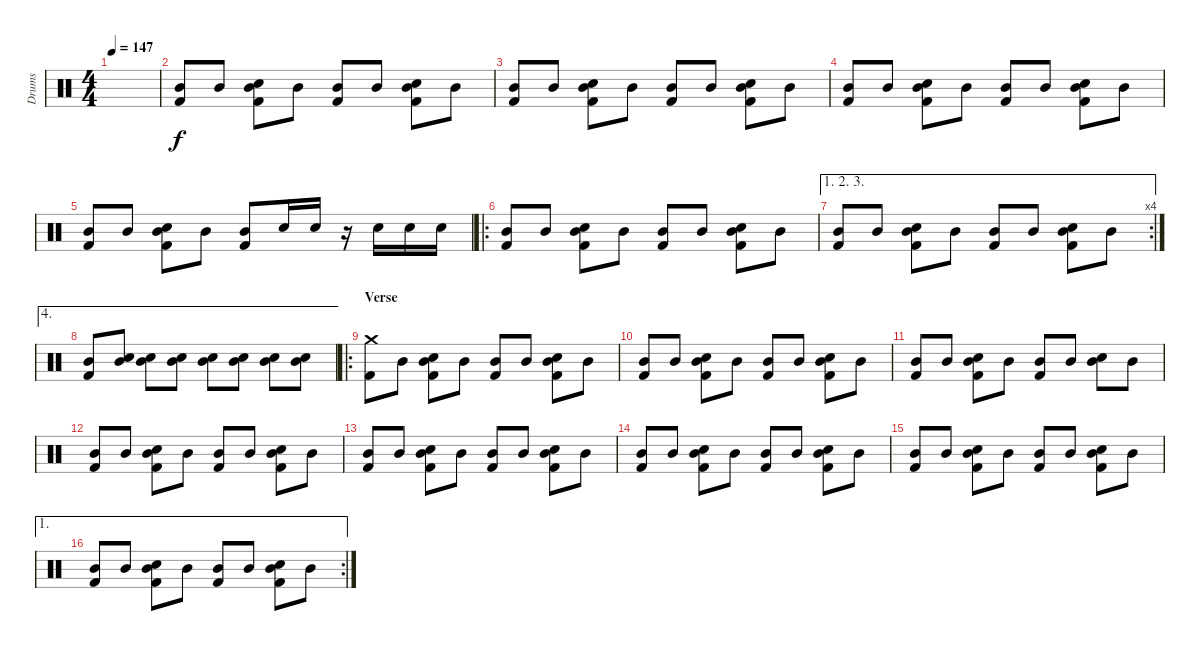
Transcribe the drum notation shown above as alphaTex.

\track ("Drums" "Drums") {instrument percussion}
\staff {score}
\articulation defaults
\ts (4 4)
\tempo 147
\clef neutral
\ks c
|
("Mid Tom (hit)" "Kick (hit) 2").8 "Mid Tom (hit)".8 ("Mid Tom (hit)" "Electric Snare (hit)" "Kick (hit) 2").8 "Mid Tom (hit)".8 ("Mid Tom (hit)" "Kick (hit) 2").8 "Mid Tom (hit)".8 ("Mid Tom (hit)" "Electric Snare (hit)" "Kick (hit) 2").8 "Mid Tom (hit)".8 |
("Mid Tom (hit)" "Kick (hit) 2").8 "Mid Tom (hit)".8 ("Mid Tom (hit)" "Electric Snare (hit)" "Kick (hit) 2").8 "Mid Tom (hit)".8 ("Mid Tom (hit)" "Kick (hit) 2").8 "Mid Tom (hit)".8 ("Mid Tom (hit)" "Electric Snare (hit)" "Kick (hit) 2").8 "Mid Tom (hit)".8 |
("Mid Tom (hit)" "Kick (hit) 2").8 "Mid Tom (hit)".8 ("Mid Tom (hit)" "Electric Snare (hit)" "Kick (hit) 2").8 "Mid Tom (hit)".8 ("Mid Tom (hit)" "Kick (hit) 2").8 "Mid Tom (hit)".8 ("Mid Tom (hit)" "Electric Snare (hit)" "Kick (hit) 2").8 "Mid Tom (hit)".8 |
("Mid Tom (hit)" "Kick (hit) 2").8 "Mid Tom (hit)".8 ("Mid Tom (hit)" "Electric Snare (hit)" "Kick (hit) 2").8 "Mid Tom (hit)".8 ("Mid Tom (hit)" "Kick (hit) 2").8 "Electric Snare (hit)".16 "Electric Snare (hit)".16 r.16 "Electric Snare (hit)".16 "Electric Snare (hit)".16 "Electric Snare (hit)".16 |
\ro
("Mid Tom (hit)" "Kick (hit) 2").8 "Mid Tom (hit)".8 ("Mid Tom (hit)" "Electric Snare (hit)" "Kick (hit) 2").8 "Mid Tom (hit)".8 ("Mid Tom (hit)" "Kick (hit) 2").8 "Mid Tom (hit)".8 ("Mid Tom (hit)" "Electric Snare (hit)" "Kick (hit) 2").8 "Mid Tom (hit)".8 |
\ae (1 2 3)
\rc 4
("Mid Tom (hit)" "Kick (hit) 2").8 "Mid Tom (hit)".8 ("Mid Tom (hit)" "Electric Snare (hit)" "Kick (hit) 2").8 "Mid Tom (hit)".8 ("Mid Tom (hit)" "Kick (hit) 2").8 "Mid Tom (hit)".8 ("Mid Tom (hit)" "Electric Snare (hit)" "Kick (hit) 2").8 "Mid Tom (hit)".8 |
\ae 4
("Mid Tom (hit)" "Kick (hit) 2").8 ("Mid Tom (hit)" "Electric Snare (hit)").8 ("Mid Tom (hit)" "Electric Snare (hit)").8 ("Mid Tom (hit)" "Electric Snare (hit)").8 ("Mid Tom (hit)" "Electric Snare (hit)").8 ("Mid Tom (hit)" "Electric Snare (hit)").8 ("Mid Tom (hit)" "Electric Snare (hit)").8 ("Mid Tom (hit)" "Electric Snare (hit)").8 |
\ro
\section ("" "Verse")
("Crash medium (hit)" "Kick (hit) 2").8 "Mid Tom (hit)".8 ("Mid Tom (hit)" "Electric Snare (hit)" "Kick (hit) 2").8 "Mid Tom (hit)".8 ("Mid Tom (hit)" "Kick (hit) 2").8 "Mid Tom (hit)".8 ("Mid Tom (hit)" "Electric Snare (hit)" "Kick (hit) 2").8 "Mid Tom (hit)".8 |
("Mid Tom (hit)" "Kick (hit) 2").8 "Mid Tom (hit)".8 ("Mid Tom (hit)" "Electric Snare (hit)" "Kick (hit) 2").8 "Mid Tom (hit)".8 ("Mid Tom (hit)" "Kick (hit) 2").8 "Mid Tom (hit)".8 ("Mid Tom (hit)" "Electric Snare (hit)" "Kick (hit) 2").8 "Mid Tom (hit)".8 |
("Mid Tom (hit)" "Kick (hit) 2").8 "Mid Tom (hit)".8 ("Mid Tom (hit)" "Electric Snare (hit)" "Kick (hit) 2").8 "Mid Tom (hit)".8 ("Mid Tom (hit)" "Kick (hit) 2").8 "Mid Tom (hit)".8 ("Mid Tom (hit)" "Electric Snare (hit)").8 "Mid Tom (hit)".8 |
("Mid Tom (hit)" "Kick (hit) 2").8 "Mid Tom (hit)".8 ("Mid Tom (hit)" "Electric Snare (hit)" "Kick (hit) 2").8 "Mid Tom (hit)".8 ("Mid Tom (hit)" "Kick (hit) 2").8 "Mid Tom (hit)".8 ("Mid Tom (hit)" "Electric Snare (hit)" "Kick (hit) 2").8 "Mid Tom (hit)".8 |
("Mid Tom (hit)" "Kick (hit) 2").8 "Mid Tom (hit)".8 ("Mid Tom (hit)" "Electric Snare (hit)" "Kick (hit) 2").8 "Mid Tom (hit)".8 ("Mid Tom (hit)" "Kick (hit) 2").8 "Mid Tom (hit)".8 ("Mid Tom (hit)" "Electric Snare (hit)" "Kick (hit) 2").8 "Mid Tom (hit)".8 |
("Mid Tom (hit)" "Kick (hit) 2").8 "Mid Tom (hit)".8 ("Mid Tom (hit)" "Electric Snare (hit)" "Kick (hit) 2").8 "Mid Tom (hit)".8 ("Mid Tom (hit)" "Kick (hit) 2").8 "Mid Tom (hit)".8 ("Mid Tom (hit)" "Electric Snare (hit)" "Kick (hit) 2").8 "Mid Tom (hit)".8 |
("Mid Tom (hit)" "Kick (hit) 2").8 "Mid Tom (hit)".8 ("Mid Tom (hit)" "Electric Snare (hit)" "Kick (hit) 2").8 "Mid Tom (hit)".8 ("Mid Tom (hit)" "Kick (hit) 2").8 "Mid Tom (hit)".8 ("Mid Tom (hit)" "Electric Snare (hit)" "Kick (hit) 2").8 "Mid Tom (hit)".8 |
\ae 1
\rc 2
("Mid Tom (hit)" "Kick (hit) 2").8 "Mid Tom (hit)".8 ("Mid Tom (hit)" "Electric Snare (hit)" "Kick (hit) 2").8 "Mid Tom (hit)".8 ("Mid Tom (hit)" "Kick (hit) 2").8 "Mid Tom (hit)".8 ("Mid Tom (hit)" "Electric Snare (hit)" "Kick (hit) 2").8 "Mid Tom (hit)".8
